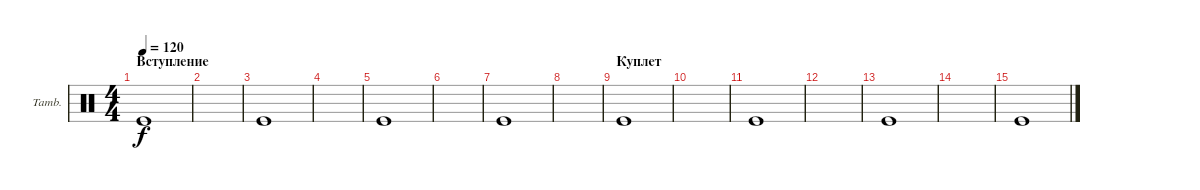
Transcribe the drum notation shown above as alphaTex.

\defaultSystemsLayout 4
\bracketExtendMode groupsimilarinstruments
\firstSystemTrackNameOrientation horizontal
\otherSystemsTrackNameOrientation horizontal
\track ("Tambourine" "Tamb.") {instrument percussion}
\staff {score}
\articulation defaults
\ts (4 4)
\section ("" "Вступление")
\tempo 120
\clef neutral
\scale
0.472222
\ks c "Kick (hit)".1{dy f}
|
\scale
0.263889 |
\scale
0.263889 "Kick (hit)".1 |
|
"Kick (hit)".1 |
|
"Kick (hit)".1 |
|
\section ("" "Куплет")
"Kick (hit)".1 |
|
"Kick (hit)".1 |
|
"Kick (hit)".1 |
|
"Kick (hit)".1
